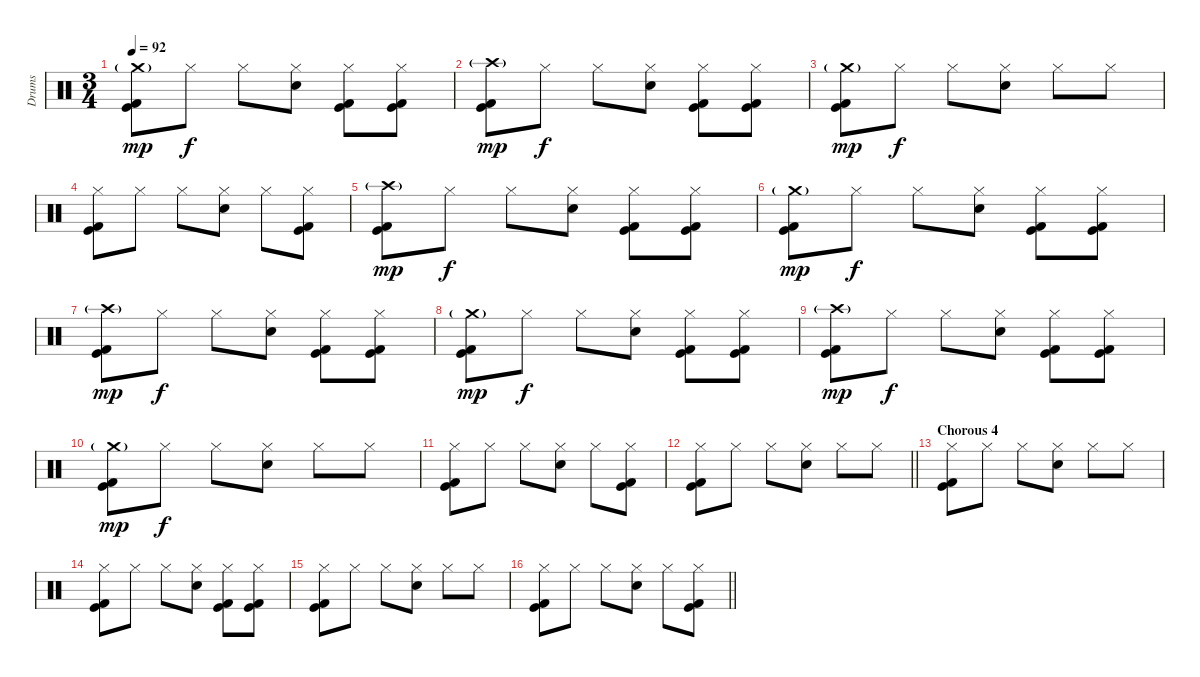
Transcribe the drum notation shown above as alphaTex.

\track ("Drums" "Drums") {instrument percussion}
\staff {score}
\articulation defaults
\ts (3 4)
\tempo 92
\clef neutral
\ks c
("Crash medium (hit)"{g} "Kick (hit)" "Kick (hit) 2").8{dy mp} "Hi-Hat (closed)".8{dy f} "Hi-Hat (closed)".8 ("Hi-Hat (closed)" "Electric Snare (hit)").8 ("Hi-Hat (closed)" "Kick (hit)" "Kick (hit) 2").8 ("Hi-Hat (closed)" "Kick (hit)" "Kick (hit) 2").8 |
("Crash high (hit)"{g} "Kick (hit)" "Kick (hit) 2").8{dy mp} "Hi-Hat (closed)".8{dy f} "Hi-Hat (closed)".8 ("Hi-Hat (closed)" "Electric Snare (hit)").8 ("Hi-Hat (closed)" "Kick (hit)" "Kick (hit) 2").8 ("Hi-Hat (closed)" "Kick (hit)" "Kick (hit) 2").8 |
("Crash medium (hit)"{g} "Kick (hit)" "Kick (hit) 2").8{dy mp} "Hi-Hat (closed)".8{dy f} "Hi-Hat (closed)".8 ("Hi-Hat (closed)" "Electric Snare (hit)").8 "Hi-Hat (closed)".8 "Hi-Hat (closed)".8 |
("Hi-Hat (closed)" "Kick (hit)" "Kick (hit) 2").8 "Hi-Hat (closed)".8 "Hi-Hat (closed)".8 ("Hi-Hat (closed)" "Electric Snare (hit)").8 "Hi-Hat (closed)".8 ("Hi-Hat (closed)" "Kick (hit)" "Kick (hit) 2").8 |
("Crash high (hit)"{g} "Kick (hit)" "Kick (hit) 2").8{dy mp} "Hi-Hat (closed)".8{dy f} "Hi-Hat (closed)".8 ("Hi-Hat (closed)" "Electric Snare (hit)").8 ("Hi-Hat (closed)" "Kick (hit)" "Kick (hit) 2").8 ("Hi-Hat (closed)" "Kick (hit)" "Kick (hit) 2").8 |
("Crash medium (hit)"{g} "Kick (hit)" "Kick (hit) 2").8{dy mp} "Hi-Hat (closed)".8{dy f} "Hi-Hat (closed)".8 ("Hi-Hat (closed)" "Electric Snare (hit)").8 ("Hi-Hat (closed)" "Kick (hit)" "Kick (hit) 2").8 ("Hi-Hat (closed)" "Kick (hit)" "Kick (hit) 2").8 |
("Crash high (hit)"{g} "Kick (hit)" "Kick (hit) 2").8{dy mp} "Hi-Hat (closed)".8{dy f} "Hi-Hat (closed)".8 ("Hi-Hat (closed)" "Electric Snare (hit)").8 ("Hi-Hat (closed)" "Kick (hit)" "Kick (hit) 2").8 ("Hi-Hat (closed)" "Kick (hit)" "Kick (hit) 2").8 |
("Crash medium (hit)"{g} "Kick (hit)" "Kick (hit) 2").8{dy mp} "Hi-Hat (closed)".8{dy f} "Hi-Hat (closed)".8 ("Hi-Hat (closed)" "Electric Snare (hit)").8 ("Hi-Hat (closed)" "Kick (hit)" "Kick (hit) 2").8 ("Hi-Hat (closed)" "Kick (hit)" "Kick (hit) 2").8 |
("Crash high (hit)"{g} "Kick (hit)" "Kick (hit) 2").8{dy mp} "Hi-Hat (closed)".8{dy f} "Hi-Hat (closed)".8 ("Hi-Hat (closed)" "Electric Snare (hit)").8 ("Hi-Hat (closed)" "Kick (hit)" "Kick (hit) 2").8 ("Hi-Hat (closed)" "Kick (hit)" "Kick (hit) 2").8 |
("Crash medium (hit)"{g} "Kick (hit)" "Kick (hit) 2").8{dy mp} "Hi-Hat (closed)".8{dy f} "Hi-Hat (closed)".8 ("Hi-Hat (closed)" "Electric Snare (hit)").8 "Hi-Hat (closed)".8 "Hi-Hat (closed)".8 |
("Hi-Hat (closed)" "Kick (hit)" "Kick (hit) 2").8 "Hi-Hat (closed)".8 "Hi-Hat (closed)".8 ("Hi-Hat (closed)" "Electric Snare (hit)").8 "Hi-Hat (closed)".8 ("Hi-Hat (closed)" "Kick (hit)" "Kick (hit) 2").8 |
\barLineRight lightlight
("Hi-Hat (closed)" "Kick (hit)" "Kick (hit) 2").8 "Hi-Hat (closed)".8 "Hi-Hat (closed)".8 ("Hi-Hat (closed)" "Electric Snare (hit)").8 "Hi-Hat (closed)".8 "Hi-Hat (closed)".8 |
\section ("" "Chorous 4")
("Hi-Hat (closed)" "Kick (hit)" "Kick (hit) 2").8 "Hi-Hat (closed)".8 "Hi-Hat (closed)".8 ("Hi-Hat (closed)" "Electric Snare (hit)").8 "Hi-Hat (closed)".8 "Hi-Hat (closed)".8 |
("Hi-Hat (closed)" "Kick (hit)" "Kick (hit) 2").8 "Hi-Hat (closed)".8 "Hi-Hat (closed)".8 ("Hi-Hat (closed)" "Electric Snare (hit)").8 ("Hi-Hat (closed)" "Kick (hit)" "Kick (hit) 2").8 ("Hi-Hat (closed)" "Kick (hit)" "Kick (hit) 2").8 |
("Hi-Hat (closed)" "Kick (hit)" "Kick (hit) 2").8 "Hi-Hat (closed)".8 "Hi-Hat (closed)".8 ("Hi-Hat (closed)" "Electric Snare (hit)").8 "Hi-Hat (closed)".8 "Hi-Hat (closed)".8 |
\barLineRight lightlight
("Hi-Hat (closed)" "Kick (hit)" "Kick (hit) 2").8 "Hi-Hat (closed)".8 "Hi-Hat (closed)".8 ("Hi-Hat (closed)" "Electric Snare (hit)").8 "Hi-Hat (closed)".8 ("Hi-Hat (closed)" "Kick (hit)" "Kick (hit) 2").8
